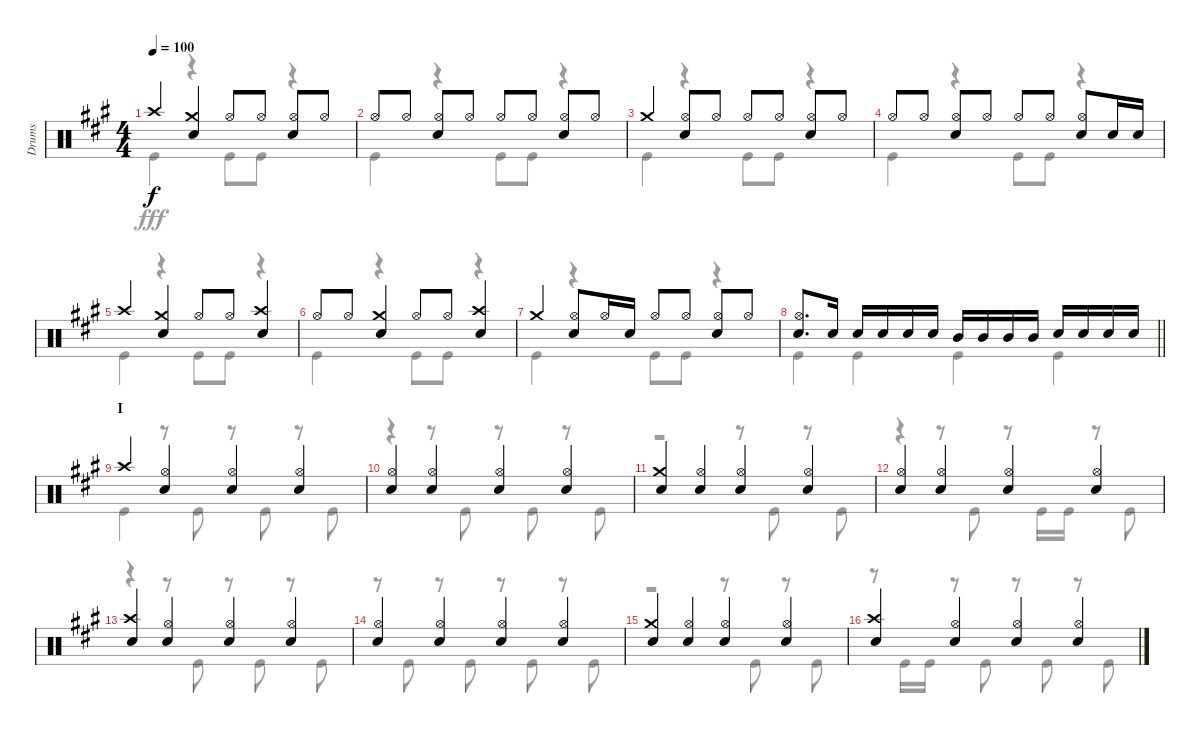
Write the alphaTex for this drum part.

\track ("Drums" "Drums") {instrument percussion}
\staff {score}
\articulation defaults
\voice
\ts (4 4)
\tempo 100
\clef neutral
\ks a "Crash high (hit)".4{dy f}
("Crash medium (hit)" "Snare (hit) 2").4 "Hi-Hat (open)".8 "Hi-Hat (open)".8 ("Hi-Hat (open)" "Snare (hit) 2").8 "Hi-Hat (open)".8 |
"Hi-Hat (open)".8 "Hi-Hat (open)".8 ("Hi-Hat (open)" "Snare (hit) 2").8 "Hi-Hat (open)".8 "Hi-Hat (open)".8 "Hi-Hat (open)".8 ("Hi-Hat (open)" "Snare (hit) 2").8 "Hi-Hat (open)".8 |
"Crash medium (hit)".4 ("Hi-Hat (open)" "Snare (hit) 2").8 "Hi-Hat (open)".8 "Hi-Hat (open)".8 "Hi-Hat (open)".8 ("Hi-Hat (open)" "Snare (hit) 2").8 "Hi-Hat (open)".8 |
"Hi-Hat (open)".8 "Hi-Hat (open)".8 ("Hi-Hat (open)" "Snare (hit) 2").8 "Hi-Hat (open)".8 "Hi-Hat (open)".8 "Hi-Hat (open)".8 ("Hi-Hat (open)" "Snare (hit) 2").8 "Snare (hit) 2".16 "Snare (hit) 2".16 |
"Crash high (hit)".4 ("Crash medium (hit)" "Snare (hit) 2").4 "Hi-Hat (open)".8 "Hi-Hat (open)".8 ("Crash high (hit)" "Snare (hit) 2").4 |
"Hi-Hat (open)".8 "Hi-Hat (open)".8 ("Crash medium (hit)" "Snare (hit) 2").4 "Hi-Hat (open)".8 "Hi-Hat (open)".8 ("Crash high (hit)" "Snare (hit) 2").4 |
"Crash medium (hit)".4 ("Hi-Hat (open)" "Snare (hit) 2").8 "Hi-Hat (open)".16 "Snare (hit) 2".16 "Hi-Hat (open)".8 "Hi-Hat (open)".8 ("Hi-Hat (open)" "Snare (hit) 2").8 "Hi-Hat (open)".8 |
\barLineRight lightlight
("Hi-Hat (open)" "Snare (hit) 2").8{d} "Snare (hit) 2".16 "Snare (hit) 2".16 "Snare (hit) 2".16 "Snare (hit) 2".16 "Snare (hit) 2".16 "Mid Tom (hit)".16 "Mid Tom (hit)".16 "Mid Tom (hit)".16 "Mid Tom (hit)".16 "Snare (hit) 2".16 "Snare (hit) 2".16 "Snare (hit) 2".16 "Snare (hit) 2".16 |
\section ("" "I")
"Crash high (hit)".4 ("Hi-Hat (open)" "Snare (hit) 2").4 ("Hi-Hat (open)" "Snare (hit) 2").4 ("Hi-Hat (open)" "Snare (hit) 2").4 |
("Hi-Hat (open)" "Snare (hit) 2").4 ("Hi-Hat (open)" "Snare (hit) 2").4 ("Hi-Hat (open)" "Snare (hit) 2").4 ("Hi-Hat (open)" "Snare (hit) 2").4 |
("Crash medium (hit)" "Snare (hit) 2").4 ("Hi-Hat (open)" "Snare (hit) 2").4 ("Hi-Hat (open)" "Snare (hit) 2").4 ("Hi-Hat (open)" "Snare (hit) 2").4 |
("Hi-Hat (open)" "Snare (hit) 2").4 ("Hi-Hat (open)" "Snare (hit) 2").4 ("Hi-Hat (open)" "Snare (hit) 2").4 ("Hi-Hat (open)" "Snare (hit) 2").4 |
("Crash high (hit)" "Snare (hit) 2").4 ("Hi-Hat (open)" "Snare (hit) 2").4 ("Hi-Hat (open)" "Snare (hit) 2").4 ("Hi-Hat (open)" "Snare (hit) 2").4 |
("Hi-Hat (open)" "Snare (hit) 2").4 ("Hi-Hat (open)" "Snare (hit) 2").4 ("Hi-Hat (open)" "Snare (hit) 2").4 ("Hi-Hat (open)" "Snare (hit) 2").4 |
("Crash medium (hit)" "Snare (hit) 2").4 ("Hi-Hat (open)" "Snare (hit) 2").4 ("Hi-Hat (open)" "Snare (hit) 2").4 ("Hi-Hat (open)" "Snare (hit) 2").4 |
("Crash high (hit)" "Snare (hit) 2").4 ("Hi-Hat (open)" "Snare (hit) 2").4 ("Hi-Hat (open)" "Snare (hit) 2").4 ("Hi-Hat (open)" "Snare (hit) 2").4
\voice
\clef neutral
\ottava regular
\simile none
\ks a "Kick (hit)".4{dy fff}
r.4 "Kick (hit)".8 "Kick (hit)".8 r.4 |
"Kick (hit)".4 r.4 "Kick (hit)".8 "Kick (hit)".8 r.4 |
"Kick (hit)".4 r.4 "Kick (hit)".8 "Kick (hit)".8 r.4 |
"Kick (hit)".4 r.4 "Kick (hit)".8 "Kick (hit)".8 r.4 |
"Kick (hit)".4 r.4 "Kick (hit)".8 "Kick (hit)".8 r.4 |
"Kick (hit)".4 r.4 "Kick (hit)".8 "Kick (hit)".8 r.4 |
"Kick (hit)".4 r.4 "Kick (hit)".8 "Kick (hit)".8 r.4 |
\barLineRight lightlight "Kick (hit)".4 "Kick (hit)".4 "Kick (hit)".4 "Kick (hit)".4
|
"Kick (hit)".4 r.8 "Kick (hit)".8 r.8 "Kick (hit)".8 r.8 "Kick (hit)".8 |
r.4 r.8 "Kick (hit)".8 r.8 "Kick (hit)".8 r.8 "Kick (hit)".8 |
r.2 r.8 "Kick (hit)".8 r.8 "Kick (hit)".8 |
r.4 r.8 "Kick (hit)".8 r.8 "Kick (hit)".16 "Kick (hit)".16 r.8 "Kick (hit)".8 |
r.4 r.8 "Kick (hit)".8 r.8 "Kick (hit)".8 r.8 "Kick (hit)".8 |
r.8 "Kick (hit)".8 r.8 "Kick (hit)".8 r.8 "Kick (hit)".8 r.8 "Kick (hit)".8 |
r.2 r.8 "Kick (hit)".8 r.8 "Kick (hit)".8 |
r.8 "Kick (hit)".16 "Kick (hit)".16 r.8 "Kick (hit)".8 r.8 "Kick (hit)".8 r.8 "Kick (hit)".8
